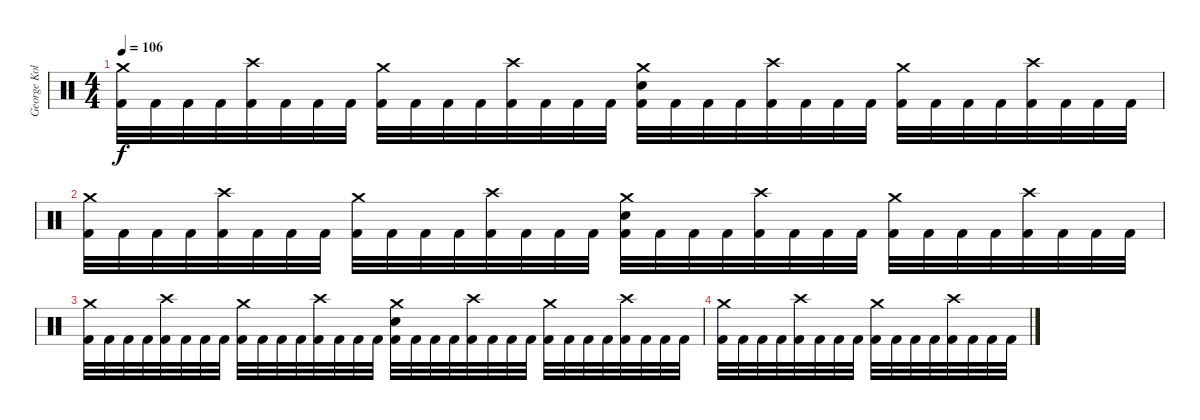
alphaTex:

\track ("George Kollias" "George Kol") {instrument percussion}
\staff {score}
\articulation defaults
\ts (4 4)
\tempo 106
\clef neutral
\ks c
("Crash medium (hit)" "Kick (hit) 2").32{dy f} "Kick (hit) 2".32 "Kick (hit) 2".32 "Kick (hit) 2".32 ("Crash high (hit)" "Kick (hit) 2").32 "Kick (hit) 2".32 "Kick (hit) 2".32 "Kick (hit) 2".32 ("Crash medium (hit)" "Kick (hit) 2").32 "Kick (hit) 2".32 "Kick (hit) 2".32 "Kick (hit) 2".32 ("Crash high (hit)" "Kick (hit) 2").32 "Kick (hit) 2".32 "Kick (hit) 2".32 "Kick (hit) 2".32 ("Crash medium (hit)" "Electric Snare (hit)" "Kick (hit) 2").32 "Kick (hit) 2".32 "Kick (hit) 2".32 "Kick (hit) 2".32 ("Crash high (hit)" "Kick (hit) 2").32 "Kick (hit) 2".32 "Kick (hit) 2".32 "Kick (hit) 2".32 ("Crash medium (hit)" "Kick (hit) 2").32 "Kick (hit) 2".32 "Kick (hit) 2".32 "Kick (hit) 2".32 ("Crash high (hit)" "Kick (hit) 2").32 "Kick (hit) 2".32 "Kick (hit) 2".32 "Kick (hit) 2".32 |
("Crash medium (hit)" "Kick (hit) 2").32 "Kick (hit) 2".32 "Kick (hit) 2".32 "Kick (hit) 2".32 ("Crash high (hit)" "Kick (hit) 2").32 "Kick (hit) 2".32 "Kick (hit) 2".32 "Kick (hit) 2".32 ("Crash medium (hit)" "Kick (hit) 2").32 "Kick (hit) 2".32 "Kick (hit) 2".32 "Kick (hit) 2".32 ("Crash high (hit)" "Kick (hit) 2").32 "Kick (hit) 2".32 "Kick (hit) 2".32 "Kick (hit) 2".32 ("Crash medium (hit)" "Electric Snare (hit)" "Kick (hit) 2").32 "Kick (hit) 2".32 "Kick (hit) 2".32 "Kick (hit) 2".32 ("Crash high (hit)" "Kick (hit) 2").32 "Kick (hit) 2".32 "Kick (hit) 2".32 "Kick (hit) 2".32 ("Crash medium (hit)" "Kick (hit) 2").32 "Kick (hit) 2".32 "Kick (hit) 2".32 "Kick (hit) 2".32 ("Crash high (hit)" "Kick (hit) 2").32 "Kick (hit) 2".32 "Kick (hit) 2".32 "Kick (hit) 2".32 |
("Crash medium (hit)" "Kick (hit) 2").32 "Kick (hit) 2".32 "Kick (hit) 2".32 "Kick (hit) 2".32 ("Crash high (hit)" "Kick (hit) 2").32 "Kick (hit) 2".32 "Kick (hit) 2".32 "Kick (hit) 2".32 ("Crash medium (hit)" "Kick (hit) 2").32 "Kick (hit) 2".32 "Kick (hit) 2".32 "Kick (hit) 2".32 ("Crash high (hit)" "Kick (hit) 2").32 "Kick (hit) 2".32 "Kick (hit) 2".32 "Kick (hit) 2".32 ("Crash medium (hit)" "Electric Snare (hit)" "Kick (hit) 2").32 "Kick (hit) 2".32 "Kick (hit) 2".32 "Kick (hit) 2".32 ("Crash high (hit)" "Kick (hit) 2").32 "Kick (hit) 2".32 "Kick (hit) 2".32 "Kick (hit) 2".32 ("Crash medium (hit)" "Kick (hit) 2").32 "Kick (hit) 2".32 "Kick (hit) 2".32 "Kick (hit) 2".32 ("Crash high (hit)" "Kick (hit) 2").32 "Kick (hit) 2".32 "Kick (hit) 2".32 "Kick (hit) 2".32 |
("Crash medium (hit)" "Kick (hit) 2").32 "Kick (hit) 2".32 "Kick (hit) 2".32 "Kick (hit) 2".32 ("Crash high (hit)" "Kick (hit) 2").32 "Kick (hit) 2".32 "Kick (hit) 2".32 "Kick (hit) 2".32 ("Crash medium (hit)" "Kick (hit) 2").32 "Kick (hit) 2".32 "Kick (hit) 2".32 "Kick (hit) 2".32 ("Crash high (hit)" "Kick (hit) 2").32 "Kick (hit) 2".32 "Kick (hit) 2".32 "Kick (hit) 2".32
